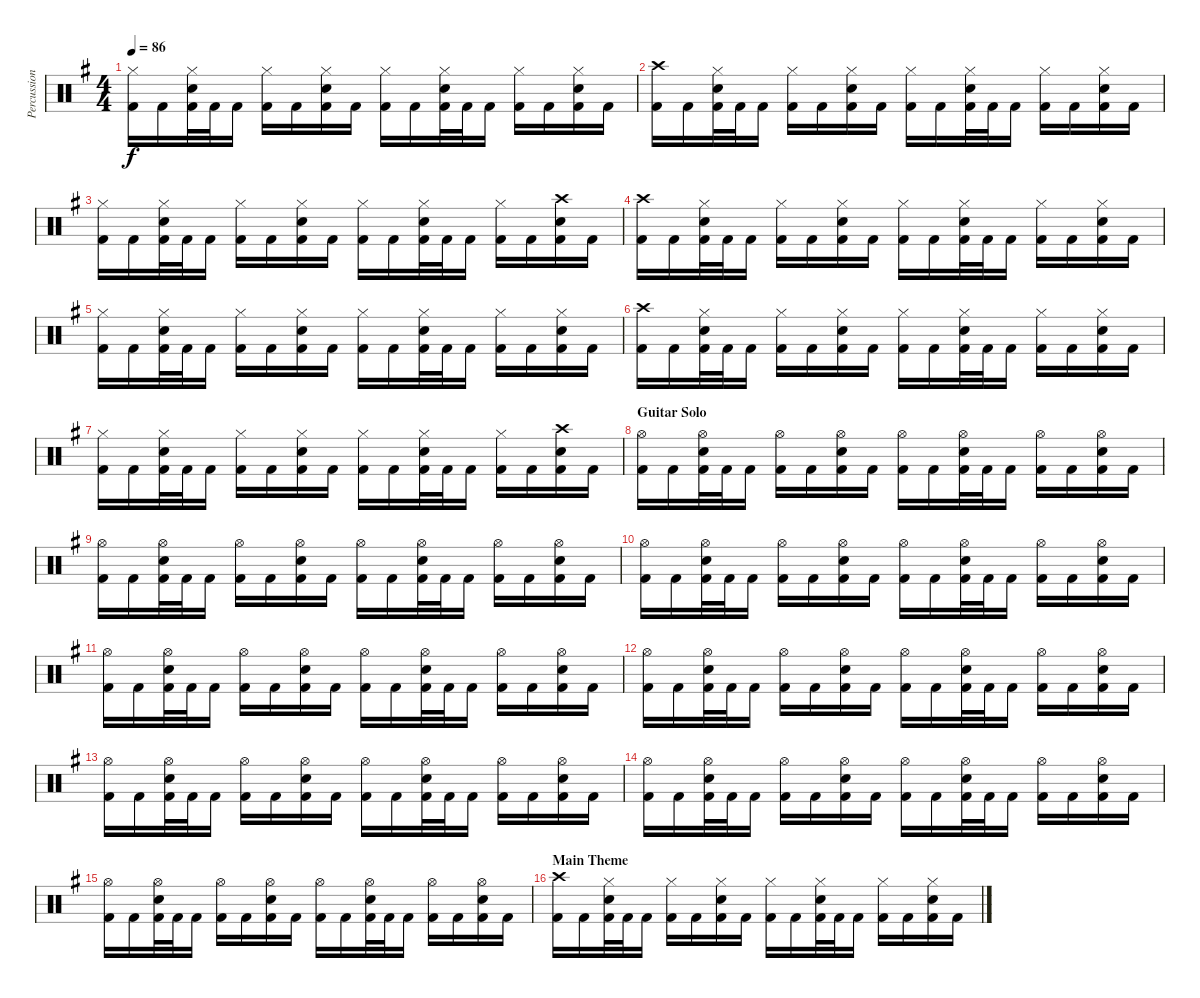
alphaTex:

\track ("Percussions" "Percussion") {instrument percussion}
\staff {score}
\articulation defaults
\ts (4 4)
\tempo 86
\clef neutral
\ks eminor
("Hi-Hat (closed)" "Kick (hit) 2").16{dy f} "Kick (hit) 2".16 ("Hi-Hat (closed)" "Snare (hit) 2" "Kick (hit) 2").32 "Kick (hit) 2".32 "Kick (hit) 2".16 ("Hi-Hat (closed)" "Kick (hit) 2").16 "Kick (hit) 2".16 ("Hi-Hat (closed)" "Snare (hit) 2" "Kick (hit) 2").16 "Kick (hit) 2".16 ("Hi-Hat (closed)" "Kick (hit) 2").16 "Kick (hit) 2".16 ("Hi-Hat (closed)" "Snare (hit) 2" "Kick (hit) 2").32 "Kick (hit) 2".32 "Kick (hit) 2".16 ("Hi-Hat (closed)" "Kick (hit) 2").16 "Kick (hit) 2".16 ("Hi-Hat (closed)" "Snare (hit) 2" "Kick (hit) 2").16 "Kick (hit) 2".16 |
("Crash high (hit)" "Kick (hit) 2").16 "Kick (hit) 2".16 ("Hi-Hat (closed)" "Snare (hit) 2" "Kick (hit) 2").32 "Kick (hit) 2".32 "Kick (hit) 2".16 ("Hi-Hat (closed)" "Kick (hit) 2").16 "Kick (hit) 2".16 ("Hi-Hat (closed)" "Snare (hit) 2" "Kick (hit) 2").16 "Kick (hit) 2".16 ("Hi-Hat (closed)" "Kick (hit) 2").16 "Kick (hit) 2".16 ("Hi-Hat (closed)" "Snare (hit) 2" "Kick (hit) 2").32 "Kick (hit) 2".32 "Kick (hit) 2".16 ("Hi-Hat (closed)" "Kick (hit) 2").16 "Kick (hit) 2".16 ("Hi-Hat (closed)" "Snare (hit) 2" "Kick (hit) 2").16 "Kick (hit) 2".16 |
("Hi-Hat (closed)" "Kick (hit) 2").16 "Kick (hit) 2".16 ("Hi-Hat (closed)" "Snare (hit) 2" "Kick (hit) 2").32 "Kick (hit) 2".32 "Kick (hit) 2".16 ("Hi-Hat (closed)" "Kick (hit) 2").16 "Kick (hit) 2".16 ("Hi-Hat (closed)" "Snare (hit) 2" "Kick (hit) 2").16 "Kick (hit) 2".16 ("Hi-Hat (closed)" "Kick (hit) 2").16 "Kick (hit) 2".16 ("Hi-Hat (closed)" "Snare (hit) 2" "Kick (hit) 2").32 "Kick (hit) 2".32 "Kick (hit) 2".16 ("Hi-Hat (closed)" "Kick (hit) 2").16 "Kick (hit) 2".16 ("Crash high (hit)" "Snare (hit) 2" "Kick (hit) 2").16 "Kick (hit) 2".16 |
("Crash high (hit)" "Kick (hit) 2").16 "Kick (hit) 2".16 ("Hi-Hat (closed)" "Snare (hit) 2" "Kick (hit) 2").32 "Kick (hit) 2".32 "Kick (hit) 2".16 ("Hi-Hat (closed)" "Kick (hit) 2").16 "Kick (hit) 2".16 ("Hi-Hat (closed)" "Snare (hit) 2" "Kick (hit) 2").16 "Kick (hit) 2".16 ("Hi-Hat (closed)" "Kick (hit) 2").16 "Kick (hit) 2".16 ("Hi-Hat (closed)" "Snare (hit) 2" "Kick (hit) 2").32 "Kick (hit) 2".32 "Kick (hit) 2".16 ("Hi-Hat (closed)" "Kick (hit) 2").16 "Kick (hit) 2".16 ("Hi-Hat (closed)" "Snare (hit) 2" "Kick (hit) 2").16 "Kick (hit) 2".16 |
("Hi-Hat (closed)" "Kick (hit) 2").16 "Kick (hit) 2".16 ("Hi-Hat (closed)" "Snare (hit) 2" "Kick (hit) 2").32 "Kick (hit) 2".32 "Kick (hit) 2".16 ("Hi-Hat (closed)" "Kick (hit) 2").16 "Kick (hit) 2".16 ("Hi-Hat (closed)" "Snare (hit) 2" "Kick (hit) 2").16 "Kick (hit) 2".16 ("Hi-Hat (closed)" "Kick (hit) 2").16 "Kick (hit) 2".16 ("Hi-Hat (closed)" "Snare (hit) 2" "Kick (hit) 2").32 "Kick (hit) 2".32 "Kick (hit) 2".16 ("Hi-Hat (closed)" "Kick (hit) 2").16 "Kick (hit) 2".16 ("Hi-Hat (closed)" "Snare (hit) 2" "Kick (hit) 2").16 "Kick (hit) 2".16 |
("Crash high (hit)" "Kick (hit) 2").16 "Kick (hit) 2".16 ("Hi-Hat (closed)" "Snare (hit) 2" "Kick (hit) 2").32 "Kick (hit) 2".32 "Kick (hit) 2".16 ("Hi-Hat (closed)" "Kick (hit) 2").16 "Kick (hit) 2".16 ("Hi-Hat (closed)" "Snare (hit) 2" "Kick (hit) 2").16 "Kick (hit) 2".16 ("Hi-Hat (closed)" "Kick (hit) 2").16 "Kick (hit) 2".16 ("Hi-Hat (closed)" "Snare (hit) 2" "Kick (hit) 2").32 "Kick (hit) 2".32 "Kick (hit) 2".16 ("Hi-Hat (closed)" "Kick (hit) 2").16 "Kick (hit) 2".16 ("Hi-Hat (closed)" "Snare (hit) 2" "Kick (hit) 2").16 "Kick (hit) 2".16 |
("Hi-Hat (closed)" "Kick (hit) 2").16 "Kick (hit) 2".16 ("Hi-Hat (closed)" "Snare (hit) 2" "Kick (hit) 2").32 "Kick (hit) 2".32 "Kick (hit) 2".16 ("Hi-Hat (closed)" "Kick (hit) 2").16 "Kick (hit) 2".16 ("Hi-Hat (closed)" "Snare (hit) 2" "Kick (hit) 2").16 "Kick (hit) 2".16 ("Hi-Hat (closed)" "Kick (hit) 2").16 "Kick (hit) 2".16 ("Hi-Hat (closed)" "Snare (hit) 2" "Kick (hit) 2").32 "Kick (hit) 2".32 "Kick (hit) 2".16 ("Hi-Hat (closed)" "Kick (hit) 2").16 "Kick (hit) 2".16 ("Crash high (hit)" "Snare (hit) 2" "Kick (hit) 2").16 "Kick (hit) 2".16 |
\section ("" "Guitar Solo")
("Hi-Hat (open)" "Kick (hit) 2").16 "Kick (hit) 2".16 ("Hi-Hat (open)" "Snare (hit) 2" "Kick (hit) 2").32 "Kick (hit) 2".32 "Kick (hit) 2".16 ("Hi-Hat (open)" "Kick (hit) 2").16 "Kick (hit) 2".16 ("Hi-Hat (open)" "Snare (hit) 2" "Kick (hit) 2").16 "Kick (hit) 2".16 ("Hi-Hat (open)" "Kick (hit) 2").16 "Kick (hit) 2".16 ("Hi-Hat (open)" "Snare (hit) 2" "Kick (hit) 2").32 "Kick (hit) 2".32 "Kick (hit) 2".16 ("Hi-Hat (open)" "Kick (hit) 2").16 "Kick (hit) 2".16 ("Hi-Hat (open)" "Snare (hit) 2" "Kick (hit) 2").16 "Kick (hit) 2".16 |
("Hi-Hat (open)" "Kick (hit) 2").16 "Kick (hit) 2".16 ("Hi-Hat (open)" "Snare (hit) 2" "Kick (hit) 2").32 "Kick (hit) 2".32 "Kick (hit) 2".16 ("Hi-Hat (open)" "Kick (hit) 2").16 "Kick (hit) 2".16 ("Hi-Hat (open)" "Snare (hit) 2" "Kick (hit) 2").16 "Kick (hit) 2".16 ("Hi-Hat (open)" "Kick (hit) 2").16 "Kick (hit) 2".16 ("Hi-Hat (open)" "Snare (hit) 2" "Kick (hit) 2").32 "Kick (hit) 2".32 "Kick (hit) 2".16 ("Hi-Hat (open)" "Kick (hit) 2").16 "Kick (hit) 2".16 ("Hi-Hat (open)" "Snare (hit) 2" "Kick (hit) 2").16 "Kick (hit) 2".16 |
("Hi-Hat (open)" "Kick (hit) 2").16 "Kick (hit) 2".16 ("Hi-Hat (open)" "Snare (hit) 2" "Kick (hit) 2").32 "Kick (hit) 2".32 "Kick (hit) 2".16 ("Hi-Hat (open)" "Kick (hit) 2").16 "Kick (hit) 2".16 ("Hi-Hat (open)" "Snare (hit) 2" "Kick (hit) 2").16 "Kick (hit) 2".16 ("Hi-Hat (open)" "Kick (hit) 2").16 "Kick (hit) 2".16 ("Hi-Hat (open)" "Snare (hit) 2" "Kick (hit) 2").32 "Kick (hit) 2".32 "Kick (hit) 2".16 ("Hi-Hat (open)" "Kick (hit) 2").16 "Kick (hit) 2".16 ("Hi-Hat (open)" "Snare (hit) 2" "Kick (hit) 2").16 "Kick (hit) 2".16 |
("Hi-Hat (open)" "Kick (hit) 2").16 "Kick (hit) 2".16 ("Hi-Hat (open)" "Snare (hit) 2" "Kick (hit) 2").32 "Kick (hit) 2".32 "Kick (hit) 2".16 ("Hi-Hat (open)" "Kick (hit) 2").16 "Kick (hit) 2".16 ("Hi-Hat (open)" "Snare (hit) 2" "Kick (hit) 2").16 "Kick (hit) 2".16 ("Hi-Hat (open)" "Kick (hit) 2").16 "Kick (hit) 2".16 ("Hi-Hat (open)" "Snare (hit) 2" "Kick (hit) 2").32 "Kick (hit) 2".32 "Kick (hit) 2".16 ("Hi-Hat (open)" "Kick (hit) 2").16 "Kick (hit) 2".16 ("Hi-Hat (open)" "Snare (hit) 2" "Kick (hit) 2").16 "Kick (hit) 2".16 |
("Hi-Hat (open)" "Kick (hit) 2").16 "Kick (hit) 2".16 ("Hi-Hat (open)" "Snare (hit) 2" "Kick (hit) 2").32 "Kick (hit) 2".32 "Kick (hit) 2".16 ("Hi-Hat (open)" "Kick (hit) 2").16 "Kick (hit) 2".16 ("Hi-Hat (open)" "Snare (hit) 2" "Kick (hit) 2").16 "Kick (hit) 2".16 ("Hi-Hat (open)" "Kick (hit) 2").16 "Kick (hit) 2".16 ("Hi-Hat (open)" "Snare (hit) 2" "Kick (hit) 2").32 "Kick (hit) 2".32 "Kick (hit) 2".16 ("Hi-Hat (open)" "Kick (hit) 2").16 "Kick (hit) 2".16 ("Hi-Hat (open)" "Snare (hit) 2" "Kick (hit) 2").16 "Kick (hit) 2".16 |
("Hi-Hat (open)" "Kick (hit) 2").16 "Kick (hit) 2".16 ("Hi-Hat (open)" "Snare (hit) 2" "Kick (hit) 2").32 "Kick (hit) 2".32 "Kick (hit) 2".16 ("Hi-Hat (open)" "Kick (hit) 2").16 "Kick (hit) 2".16 ("Hi-Hat (open)" "Snare (hit) 2" "Kick (hit) 2").16 "Kick (hit) 2".16 ("Hi-Hat (open)" "Kick (hit) 2").16 "Kick (hit) 2".16 ("Hi-Hat (open)" "Snare (hit) 2" "Kick (hit) 2").32 "Kick (hit) 2".32 "Kick (hit) 2".16 ("Hi-Hat (open)" "Kick (hit) 2").16 "Kick (hit) 2".16 ("Hi-Hat (open)" "Snare (hit) 2" "Kick (hit) 2").16 "Kick (hit) 2".16 |
("Hi-Hat (open)" "Kick (hit) 2").16 "Kick (hit) 2".16 ("Hi-Hat (open)" "Snare (hit) 2" "Kick (hit) 2").32 "Kick (hit) 2".32 "Kick (hit) 2".16 ("Hi-Hat (open)" "Kick (hit) 2").16 "Kick (hit) 2".16 ("Hi-Hat (open)" "Snare (hit) 2" "Kick (hit) 2").16 "Kick (hit) 2".16 ("Hi-Hat (open)" "Kick (hit) 2").16 "Kick (hit) 2".16 ("Hi-Hat (open)" "Snare (hit) 2" "Kick (hit) 2").32 "Kick (hit) 2".32 "Kick (hit) 2".16 ("Hi-Hat (open)" "Kick (hit) 2").16 "Kick (hit) 2".16 ("Hi-Hat (open)" "Snare (hit) 2" "Kick (hit) 2").16 "Kick (hit) 2".16 |
("Hi-Hat (open)" "Kick (hit) 2").16 "Kick (hit) 2".16 ("Hi-Hat (open)" "Snare (hit) 2" "Kick (hit) 2").32 "Kick (hit) 2".32 "Kick (hit) 2".16 ("Hi-Hat (open)" "Kick (hit) 2").16 "Kick (hit) 2".16 ("Hi-Hat (open)" "Snare (hit) 2" "Kick (hit) 2").16 "Kick (hit) 2".16 ("Hi-Hat (open)" "Kick (hit) 2").16 "Kick (hit) 2".16 ("Hi-Hat (open)" "Snare (hit) 2" "Kick (hit) 2").32 "Kick (hit) 2".32 "Kick (hit) 2".16 ("Hi-Hat (open)" "Kick (hit) 2").16 "Kick (hit) 2".16 ("Hi-Hat (open)" "Snare (hit) 2" "Kick (hit) 2").16 "Kick (hit) 2".16 |
\section ("" "Main Theme")
("Crash high (hit)" "Kick (hit) 2").16 "Kick (hit) 2".16 ("Hi-Hat (closed)" "Snare (hit) 2" "Kick (hit) 2").32 "Kick (hit) 2".32 "Kick (hit) 2".16 ("Hi-Hat (closed)" "Kick (hit) 2").16 "Kick (hit) 2".16 ("Hi-Hat (closed)" "Snare (hit) 2" "Kick (hit) 2").16 "Kick (hit) 2".16 ("Hi-Hat (closed)" "Kick (hit) 2").16 "Kick (hit) 2".16 ("Hi-Hat (closed)" "Snare (hit) 2" "Kick (hit) 2").32 "Kick (hit) 2".32 "Kick (hit) 2".16 ("Hi-Hat (closed)" "Kick (hit) 2").16 "Kick (hit) 2".16 ("Hi-Hat (closed)" "Snare (hit) 2" "Kick (hit) 2").16 "Kick (hit) 2".16
